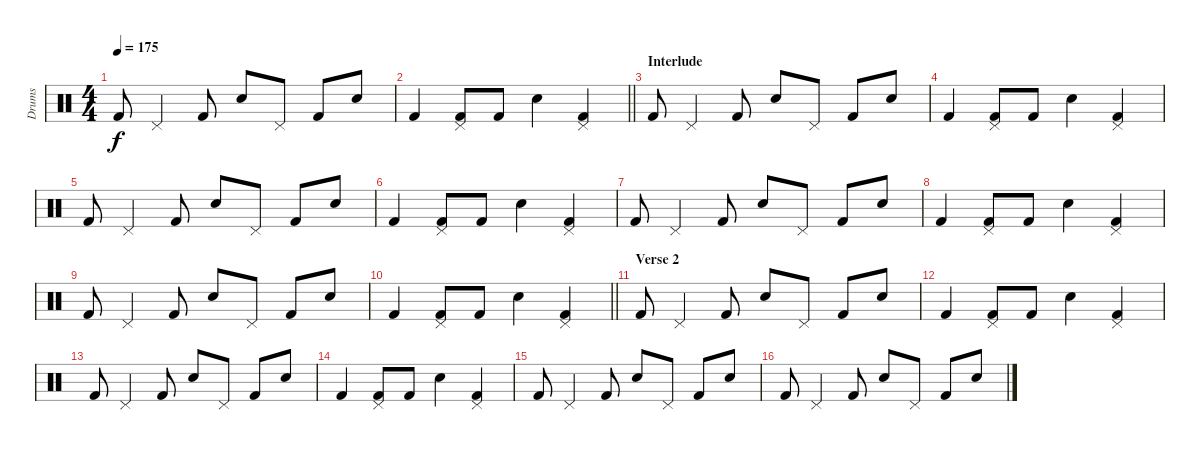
\track ("Drums" "Drums") {instrument percussion}
\staff {score}
\articulation defaults
\ts (4 4)
\tempo 175
\clef neutral
\ks c "Kick (hit) 2".8{dy f} "Pedal Hi-Hat (hit)".4 "Kick (hit) 2".8 "Electric Snare (hit)".8 "Pedal Hi-Hat (hit)".8 "Kick (hit) 2".8 "Electric Snare (hit)".8
|
\barLineRight lightlight "Kick (hit) 2".4
("Pedal Hi-Hat (hit)" "Kick (hit) 2").8 "Kick (hit) 2".8 "Electric Snare (hit)".4 ("Pedal Hi-Hat (hit)" "Kick (hit) 2").4 |
\section ("" "Interlude")
"Kick (hit) 2".8 "Pedal Hi-Hat (hit)".4 "Kick (hit) 2".8 "Electric Snare (hit)".8 "Pedal Hi-Hat (hit)".8 "Kick (hit) 2".8 "Electric Snare (hit)".8 |
"Kick (hit) 2".4 ("Pedal Hi-Hat (hit)" "Kick (hit) 2").8 "Kick (hit) 2".8 "Electric Snare (hit)".4 ("Pedal Hi-Hat (hit)" "Kick (hit) 2").4 |
"Kick (hit) 2".8 "Pedal Hi-Hat (hit)".4 "Kick (hit) 2".8 "Electric Snare (hit)".8 "Pedal Hi-Hat (hit)".8 "Kick (hit) 2".8 "Electric Snare (hit)".8 |
"Kick (hit) 2".4 ("Pedal Hi-Hat (hit)" "Kick (hit) 2").8 "Kick (hit) 2".8 "Electric Snare (hit)".4 ("Pedal Hi-Hat (hit)" "Kick (hit) 2").4 |
"Kick (hit) 2".8 "Pedal Hi-Hat (hit)".4 "Kick (hit) 2".8 "Electric Snare (hit)".8 "Pedal Hi-Hat (hit)".8 "Kick (hit) 2".8 "Electric Snare (hit)".8 |
"Kick (hit) 2".4 ("Pedal Hi-Hat (hit)" "Kick (hit) 2").8 "Kick (hit) 2".8 "Electric Snare (hit)".4 ("Pedal Hi-Hat (hit)" "Kick (hit) 2").4 |
"Kick (hit) 2".8 "Pedal Hi-Hat (hit)".4 "Kick (hit) 2".8 "Electric Snare (hit)".8 "Pedal Hi-Hat (hit)".8 "Kick (hit) 2".8 "Electric Snare (hit)".8 |
\barLineRight lightlight "Kick (hit) 2".4
("Pedal Hi-Hat (hit)" "Kick (hit) 2").8 "Kick (hit) 2".8 "Electric Snare (hit)".4 ("Pedal Hi-Hat (hit)" "Kick (hit) 2").4 |
\section ("" "Verse 2")
"Kick (hit) 2".8 "Pedal Hi-Hat (hit)".4 "Kick (hit) 2".8 "Electric Snare (hit)".8 "Pedal Hi-Hat (hit)".8 "Kick (hit) 2".8 "Electric Snare (hit)".8 |
"Kick (hit) 2".4 ("Pedal Hi-Hat (hit)" "Kick (hit) 2").8 "Kick (hit) 2".8 "Electric Snare (hit)".4 ("Pedal Hi-Hat (hit)" "Kick (hit) 2").4 |
"Kick (hit) 2".8 "Pedal Hi-Hat (hit)".4 "Kick (hit) 2".8 "Electric Snare (hit)".8 "Pedal Hi-Hat (hit)".8 "Kick (hit) 2".8 "Electric Snare (hit)".8 |
"Kick (hit) 2".4 ("Pedal Hi-Hat (hit)" "Kick (hit) 2").8 "Kick (hit) 2".8 "Electric Snare (hit)".4 ("Pedal Hi-Hat (hit)" "Kick (hit) 2").4 |
"Kick (hit) 2".8 "Pedal Hi-Hat (hit)".4 "Kick (hit) 2".8 "Electric Snare (hit)".8 "Pedal Hi-Hat (hit)".8 "Kick (hit) 2".8 "Electric Snare (hit)".8 |
"Kick (hit) 2".8 "Pedal Hi-Hat (hit)".4 "Kick (hit) 2".8 "Electric Snare (hit)".8 "Pedal Hi-Hat (hit)".8 "Kick (hit) 2".8 "Electric Snare (hit)".8
